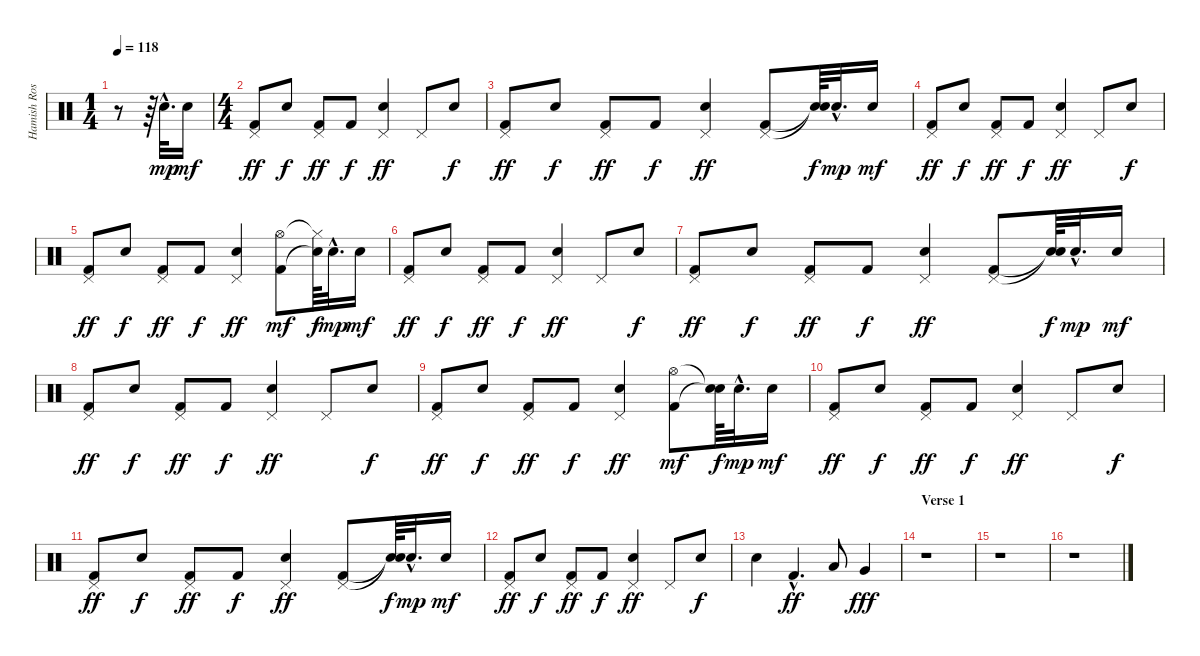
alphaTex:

\track ("Hamish Rosser" "Hamish Ros") {instrument percussion}
\staff {score}
\articulation defaults
\ts (1 4)
\tempo 118
\clef neutral
\ks c
r.8{dy mp} r.64 "Electric Snare (hit)"{hac}.32{d} "Electric Snare (hit)".16{dy mf} |
\ts (4 4)
("Pedal Hi-Hat (hit)" "Kick (hit) 2").8{dy ff} "Electric Snare (hit)".8{dy f} ("Pedal Hi-Hat (hit)" "Kick (hit) 2").8{dy ff} "Kick (hit) 2".8{dy f} ("Pedal Hi-Hat (hit)" "Electric Snare (hit)").4{dy ff} "Pedal Hi-Hat (hit)".8 "Electric Snare (hit)".8{dy f} |
("Pedal Hi-Hat (hit)" "Kick (hit) 2").8{dy ff} "Electric Snare (hit)".8{dy f} ("Pedal Hi-Hat (hit)" "Kick (hit) 2").8{dy ff} "Kick (hit) 2".8{dy f} ("Pedal Hi-Hat (hit)" "Electric Snare (hit)").4{dy ff} ("Pedal Hi-Hat (hit)" "Kick (hit) 2").8 ("Snare (hit)"{t} "Snare (hit)"{t}).64{dy f} "Electric Snare (hit)"{hac}.32{d dy mp} "Electric Snare (hit)".16{dy mf} |
("Pedal Hi-Hat (hit)" "Kick (hit) 2").8{dy ff} "Electric Snare (hit)".8{dy f} ("Pedal Hi-Hat (hit)" "Kick (hit) 2").8{dy ff} "Kick (hit) 2".8{dy f} ("Pedal Hi-Hat (hit)" "Electric Snare (hit)").4{dy ff} "Pedal Hi-Hat (hit)".8 "Electric Snare (hit)".8{dy f} |
("Pedal Hi-Hat (hit)" "Kick (hit) 2").8{dy ff} "Electric Snare (hit)".8{dy f} ("Pedal Hi-Hat (hit)" "Kick (hit) 2").8{dy ff} "Kick (hit) 2".8{dy f} ("Pedal Hi-Hat (hit)" "Electric Snare (hit)").4{dy ff} ("Hi-Hat (open)" "Kick (hit) 2").8{dy mf} ("Hi-Hat (closed)"{t} "Snare (hit)"{t}).64{dy f} "Electric Snare (hit)"{hac}.32{d dy mp} "Electric Snare (hit)".16{dy mf} |
("Pedal Hi-Hat (hit)" "Kick (hit) 2").8{dy ff} "Electric Snare (hit)".8{dy f} ("Pedal Hi-Hat (hit)" "Kick (hit) 2").8{dy ff} "Kick (hit) 2".8{dy f} ("Pedal Hi-Hat (hit)" "Electric Snare (hit)").4{dy ff} "Pedal Hi-Hat (hit)".8 "Electric Snare (hit)".8{dy f} |
("Pedal Hi-Hat (hit)" "Kick (hit) 2").8{dy ff} "Electric Snare (hit)".8{dy f} ("Pedal Hi-Hat (hit)" "Kick (hit) 2").8{dy ff} "Kick (hit) 2".8{dy f} ("Pedal Hi-Hat (hit)" "Electric Snare (hit)").4{dy ff} ("Pedal Hi-Hat (hit)" "Kick (hit) 2").8 ("Snare (hit)"{t} "Snare (hit)"{t}).64{dy f} "Electric Snare (hit)"{hac}.32{d dy mp} "Electric Snare (hit)".16{dy mf} |
("Pedal Hi-Hat (hit)" "Kick (hit) 2").8{dy ff} "Electric Snare (hit)".8{dy f} ("Pedal Hi-Hat (hit)" "Kick (hit) 2").8{dy ff} "Kick (hit) 2".8{dy f} ("Pedal Hi-Hat (hit)" "Electric Snare (hit)").4{dy ff} "Pedal Hi-Hat (hit)".8 "Electric Snare (hit)".8{dy f} |
("Pedal Hi-Hat (hit)" "Kick (hit) 2").8{dy ff} "Electric Snare (hit)".8{dy f} ("Pedal Hi-Hat (hit)" "Kick (hit) 2").8{dy ff} "Kick (hit) 2".8{dy f} ("Pedal Hi-Hat (hit)" "Electric Snare (hit)").4{dy ff} ("Hi-Hat (open)" "Kick (hit) 2").8{dy mf} ("Snare (hit)"{t} "Snare (hit)"{t}).64{dy f} "Electric Snare (hit)"{hac}.32{d dy mp} "Electric Snare (hit)".16{dy mf} |
("Pedal Hi-Hat (hit)" "Kick (hit) 2").8{dy ff} "Electric Snare (hit)".8{dy f} ("Pedal Hi-Hat (hit)" "Kick (hit) 2").8{dy ff} "Kick (hit) 2".8{dy f} ("Pedal Hi-Hat (hit)" "Electric Snare (hit)").4{dy ff} "Pedal Hi-Hat (hit)".8 "Electric Snare (hit)".8{dy f} |
("Pedal Hi-Hat (hit)" "Kick (hit) 2").8{dy ff} "Electric Snare (hit)".8{dy f} ("Pedal Hi-Hat (hit)" "Kick (hit) 2").8{dy ff} "Kick (hit) 2".8{dy f} ("Pedal Hi-Hat (hit)" "Electric Snare (hit)").4{dy ff} ("Pedal Hi-Hat (hit)" "Kick (hit) 2").8 ("Snare (hit)"{t} "Snare (hit)"{t}).64{dy f} "Electric Snare (hit)"{hac}.32{d dy mp} "Electric Snare (hit)".16{dy mf} |
("Pedal Hi-Hat (hit)" "Kick (hit) 2").8{dy ff} "Electric Snare (hit)".8{dy f} ("Pedal Hi-Hat (hit)" "Kick (hit) 2").8{dy ff} "Kick (hit) 2".8{dy f} ("Pedal Hi-Hat (hit)" "Electric Snare (hit)").4{dy ff} "Pedal Hi-Hat (hit)".8 "Electric Snare (hit)".8{dy f} |
"Electric Snare (hit)".4 "Kick (hit) 2"{hac}.4{d dy ff} "Low Tom (hit)".8 "Very Low Tom (hit)".4{dy fff} |
\section ("" "Verse 1")
r.1 |
r.1 |
r.1
